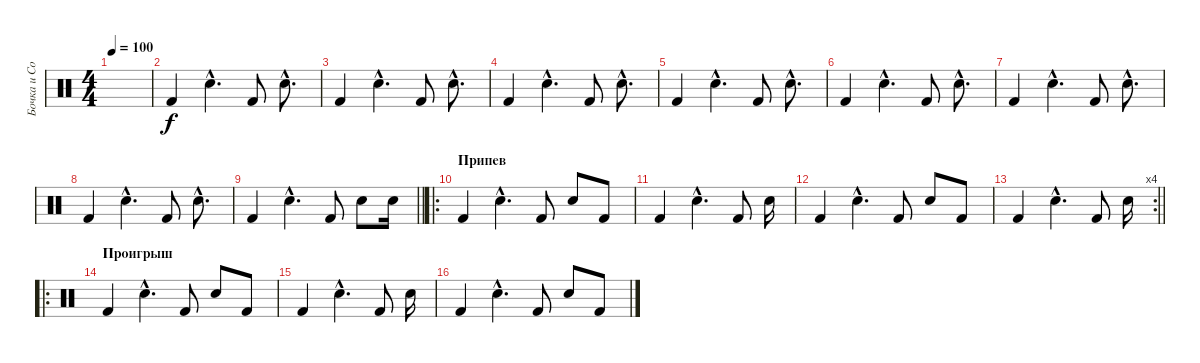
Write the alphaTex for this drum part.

\track ("Бочка и Сольник" "Бочка и Со") {instrument percussion}
\staff {score}
\articulation defaults
\ts (4 4)
\tempo 100
\clef neutral
\ks c
|
"Kick (hit) 2".4 "Snare (hit) 2"{hac}.4{d} "Kick (hit) 2".8 "Snare (hit) 2"{hac}.8{d} |
"Kick (hit) 2".4 "Snare (hit) 2"{hac}.4{d} "Kick (hit) 2".8 "Snare (hit) 2"{hac}.8{d} |
"Kick (hit) 2".4 "Snare (hit) 2"{hac}.4{d} "Kick (hit) 2".8 "Snare (hit) 2"{hac}.8{d} |
"Kick (hit) 2".4 "Snare (hit) 2"{hac}.4{d} "Kick (hit) 2".8 "Snare (hit) 2"{hac}.8{d} |
"Kick (hit) 2".4 "Snare (hit) 2"{hac}.4{d} "Kick (hit) 2".8 "Snare (hit) 2"{hac}.8{d} |
"Kick (hit) 2".4 "Snare (hit) 2"{hac}.4{d} "Kick (hit) 2".8 "Snare (hit) 2"{hac}.8{d} |
"Kick (hit) 2".4 "Snare (hit) 2"{hac}.4{d} "Kick (hit) 2".8 "Snare (hit) 2"{hac}.8{d} |
\barLineRight lightlight "Kick (hit) 2".4 "Snare (hit) 2"{hac}.4{d} "Kick (hit) 2".8 "Snare (hit) 2".8 "Snare (hit) 2".16
|
\ro
\section ("" "Припев")
"Kick (hit) 2".4 "Electric Snare (hit)"{hac}.4{d} "Kick (hit) 2".8 "Electric Snare (hit)".8 "Kick (hit) 2".8 |
"Kick (hit) 2".4 "Electric Snare (hit)"{hac}.4{d} "Kick (hit) 2".8 "Electric Snare (hit)".16 |
"Kick (hit) 2".4 "Electric Snare (hit)"{hac}.4{d} "Kick (hit) 2".8 "Electric Snare (hit)".8 "Kick (hit) 2".8 |
\rc 4
\barLineRight lightlight "Kick (hit) 2".4 "Electric Snare (hit)"{hac}.4{d} "Kick (hit) 2".8 "Electric Snare (hit)".16
|
\ro
\section ("" "Проигрыш")
"Kick (hit) 2".4 "Electric Snare (hit)"{hac}.4{d} "Kick (hit) 2".8 "Electric Snare (hit)".8 "Kick (hit) 2".8 |
"Kick (hit) 2".4 "Electric Snare (hit)"{hac}.4{d} "Kick (hit) 2".8 "Electric Snare (hit)".16 |
"Kick (hit) 2".4 "Electric Snare (hit)"{hac}.4{d} "Kick (hit) 2".8 "Electric Snare (hit)".8 "Kick (hit) 2".8
